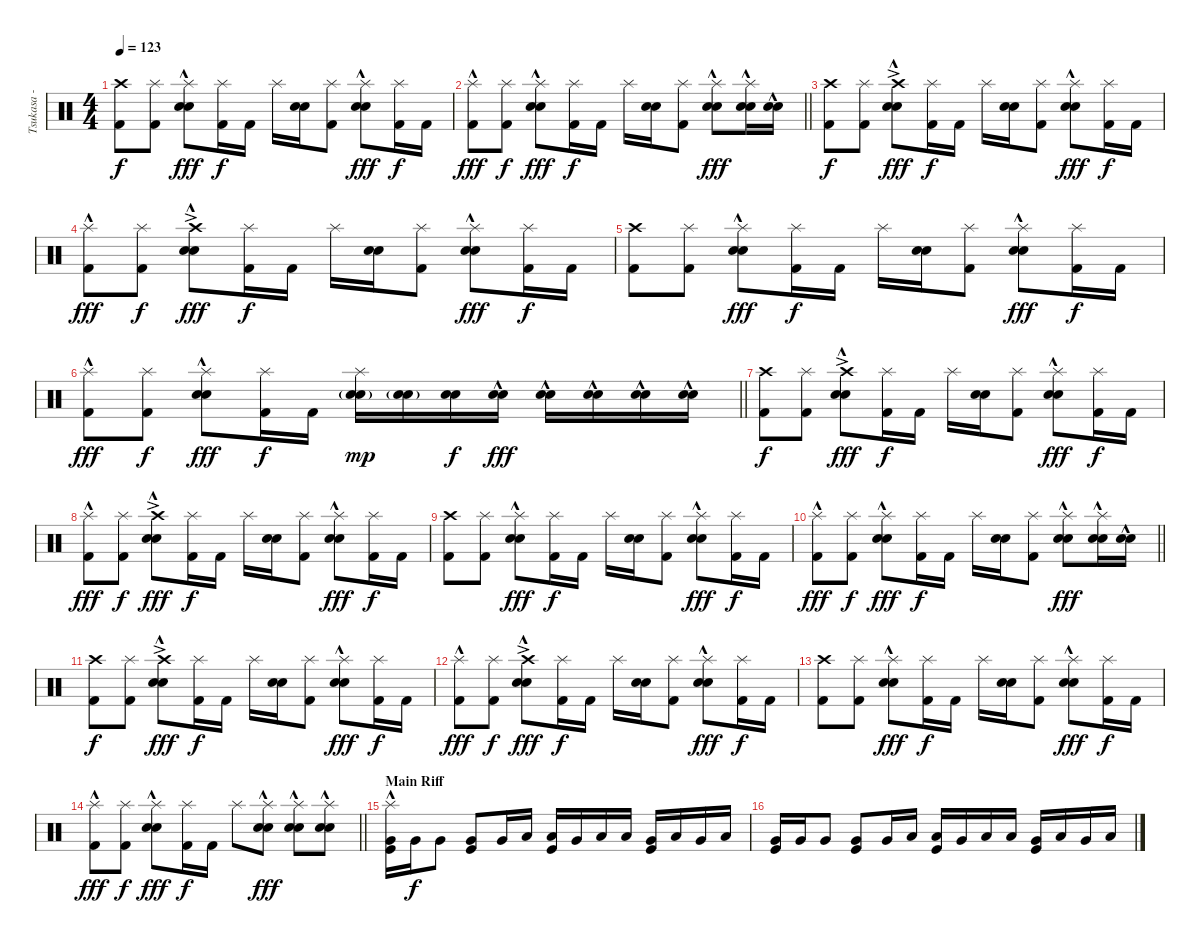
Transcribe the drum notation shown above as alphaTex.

\track ("Tsukasa - Drums" "Tsukasa - ") {instrument percussion}
\staff {score}
\articulation defaults
\ts (4 4)
\tempo 123
\clef neutral
\ks c
("Crash high (hit)" "Kick (hit) 2").8{dy f} ("Splash (hit)" "Kick (hit) 2").8 ("Splash (hit)" "Electric Snare (hit)"{hac} "Snare (hit) 2").8{dy fff} ("Splash (hit)" "Kick (hit) 2").16{dy f} "Kick (hit) 2".16 "Splash (hit)".16 ("Electric Snare (hit)" "Snare (hit) 2").16 ("Splash (hit)" "Kick (hit) 2").8 ("Splash (hit)" "Electric Snare (hit)"{hac} "Snare (hit) 2").8{dy fff} ("Splash (hit)" "Kick (hit) 2").16{dy f} "Kick (hit) 2".16 |
\barLineRight lightlight
("Splash (hit)"{hac} "Kick (hit) 2").8{dy fff} ("Splash (hit)" "Kick (hit) 2").8{dy f} ("Splash (hit)" "Electric Snare (hit)"{hac} "Snare (hit) 2").8{dy fff} ("Splash (hit)" "Kick (hit) 2").16{dy f} "Kick (hit) 2".16 "Splash (hit)".16 ("Electric Snare (hit)" "Snare (hit) 2").16 ("Splash (hit)" "Kick (hit) 2").8 ("Splash (hit)" "Electric Snare (hit)"{hac} "Snare (hit) 2").8{dy fff} ("Splash (hit)" "Electric Snare (hit)"{hac} "Snare (hit) 2").16 ("Electric Snare (hit)"{hac} "Snare (hit) 2").16 |
("Crash high (hit)" "Kick (hit) 2").8{dy f} ("Splash (hit)" "Kick (hit) 2").8 ("Crash high (hit)"{ac} "Electric Snare (hit)"{hac} "Snare (hit) 2").8{dy fff} ("Splash (hit)" "Kick (hit) 2").16{dy f} "Kick (hit) 2".16 "Splash (hit)".16 ("Electric Snare (hit)" "Snare (hit) 2").16 ("Splash (hit)" "Kick (hit) 2").8 ("Splash (hit)" "Electric Snare (hit)"{hac} "Snare (hit) 2").8{dy fff} ("Splash (hit)" "Kick (hit) 2").16{dy f} "Kick (hit) 2".16 |
("Splash (hit)"{hac} "Kick (hit) 2").8{dy fff} ("Splash (hit)" "Kick (hit) 2").8{dy f} ("Crash high (hit)"{ac} "Electric Snare (hit)"{hac} "Snare (hit) 2").8{dy fff} ("Splash (hit)" "Kick (hit) 2").16{dy f} "Kick (hit) 2".16 "Splash (hit)".16 ("Electric Snare (hit)" "Snare (hit) 2").16 ("Splash (hit)" "Kick (hit) 2").8 ("Splash (hit)" "Electric Snare (hit)"{hac} "Snare (hit) 2").8{dy fff} ("Splash (hit)" "Kick (hit) 2").16{dy f} "Kick (hit) 2".16 |
("Crash high (hit)" "Kick (hit) 2").8 ("Splash (hit)" "Kick (hit) 2").8 ("Splash (hit)" "Electric Snare (hit)"{hac} "Snare (hit) 2").8{dy fff} ("Splash (hit)" "Kick (hit) 2").16{dy f} "Kick (hit) 2".16 "Splash (hit)".16 ("Electric Snare (hit)" "Snare (hit) 2").16 ("Splash (hit)" "Kick (hit) 2").8 ("Splash (hit)" "Electric Snare (hit)"{hac} "Snare (hit) 2").8{dy fff} ("Splash (hit)" "Kick (hit) 2").16{dy f} "Kick (hit) 2".16 |
\barLineRight lightlight
("Splash (hit)"{hac} "Kick (hit) 2").8{dy fff} ("Splash (hit)" "Kick (hit) 2").8{dy f} ("Splash (hit)" "Electric Snare (hit)"{hac} "Snare (hit) 2").8{dy fff} ("Splash (hit)" "Kick (hit) 2").16{dy f} "Kick (hit) 2".16 ("Splash (hit)" "Electric Snare (hit)"{g} "Snare (hit) 2"{g}).16{dy mp} ("Electric Snare (hit)" "Snare (hit) 2"{g}).16 ("Electric Snare (hit)" "Snare (hit) 2").16{dy f} ("Electric Snare (hit)"{hac} "Snare (hit) 2").16{dy fff} ("Electric Snare (hit)"{hac} "Snare (hit) 2").16 ("Electric Snare (hit)"{hac} "Snare (hit) 2").16 ("Electric Snare (hit)"{hac} "Snare (hit) 2").16 ("Electric Snare (hit)"{hac} "Snare (hit) 2").16 |
("Crash high (hit)" "Kick (hit) 2").8{dy f} ("Splash (hit)" "Kick (hit) 2").8 ("Crash high (hit)"{ac} "Electric Snare (hit)"{hac} "Snare (hit) 2").8{dy fff} ("Splash (hit)" "Kick (hit) 2").16{dy f} "Kick (hit) 2".16 "Splash (hit)".16 ("Electric Snare (hit)" "Snare (hit) 2").16 ("Splash (hit)" "Kick (hit) 2").8 ("Splash (hit)" "Electric Snare (hit)"{hac} "Snare (hit) 2").8{dy fff} ("Splash (hit)" "Kick (hit) 2").16{dy f} "Kick (hit) 2".16 |
("Splash (hit)"{hac} "Kick (hit) 2").8{dy fff} ("Splash (hit)" "Kick (hit) 2").8{dy f} ("Crash high (hit)"{ac} "Electric Snare (hit)"{hac} "Snare (hit) 2").8{dy fff} ("Splash (hit)" "Kick (hit) 2").16{dy f} "Kick (hit) 2".16 "Splash (hit)".16 ("Electric Snare (hit)" "Snare (hit) 2").16 ("Splash (hit)" "Kick (hit) 2").8 ("Splash (hit)" "Electric Snare (hit)"{hac} "Snare (hit) 2").8{dy fff} ("Splash (hit)" "Kick (hit) 2").16{dy f} "Kick (hit) 2".16 |
("Crash high (hit)" "Kick (hit) 2").8 ("Splash (hit)" "Kick (hit) 2").8 ("Splash (hit)" "Electric Snare (hit)"{hac} "Snare (hit) 2").8{dy fff} ("Splash (hit)" "Kick (hit) 2").16{dy f} "Kick (hit) 2".16 "Splash (hit)".16 ("Electric Snare (hit)" "Snare (hit) 2").16 ("Splash (hit)" "Kick (hit) 2").8 ("Splash (hit)" "Electric Snare (hit)"{hac} "Snare (hit) 2").8{dy fff} ("Splash (hit)" "Kick (hit) 2").16{dy f} "Kick (hit) 2".16 |
\barLineRight lightlight
("Splash (hit)"{hac} "Kick (hit) 2").8{dy fff} ("Splash (hit)" "Kick (hit) 2").8{dy f} ("Splash (hit)" "Electric Snare (hit)"{hac} "Snare (hit) 2").8{dy fff} ("Splash (hit)" "Kick (hit) 2").16{dy f} "Kick (hit) 2".16 "Splash (hit)".16 ("Electric Snare (hit)" "Snare (hit) 2").16 ("Splash (hit)" "Kick (hit) 2").8 ("Splash (hit)" "Electric Snare (hit)"{hac} "Snare (hit) 2").8{dy fff} ("Splash (hit)" "Electric Snare (hit)"{hac} "Snare (hit) 2").16 ("Electric Snare (hit)"{hac} "Snare (hit) 2").16 |
("Crash high (hit)" "Kick (hit) 2").8{dy f} ("Splash (hit)" "Kick (hit) 2").8 ("Crash high (hit)"{ac} "Electric Snare (hit)"{hac} "Snare (hit) 2").8{dy fff} ("Splash (hit)" "Kick (hit) 2").16{dy f} "Kick (hit) 2".16 "Splash (hit)".16 ("Electric Snare (hit)" "Snare (hit) 2").16 ("Splash (hit)" "Kick (hit) 2").8 ("Splash (hit)" "Electric Snare (hit)"{hac} "Snare (hit) 2").8{dy fff} ("Splash (hit)" "Kick (hit) 2").16{dy f} "Kick (hit) 2".16 |
("Splash (hit)"{hac} "Kick (hit) 2").8{dy fff} ("Splash (hit)" "Kick (hit) 2").8{dy f} ("Crash high (hit)"{ac} "Electric Snare (hit)"{hac} "Snare (hit) 2").8{dy fff} ("Splash (hit)" "Kick (hit) 2").16{dy f} "Kick (hit) 2".16 "Splash (hit)".16 ("Electric Snare (hit)" "Snare (hit) 2").16 ("Splash (hit)" "Kick (hit) 2").8 ("Splash (hit)" "Electric Snare (hit)"{hac} "Snare (hit) 2").8{dy fff} ("Splash (hit)" "Kick (hit) 2").16{dy f} "Kick (hit) 2".16 |
("Crash high (hit)" "Kick (hit) 2").8 ("Splash (hit)" "Kick (hit) 2").8 ("Splash (hit)" "Electric Snare (hit)"{hac} "Snare (hit) 2").8{dy fff} ("Splash (hit)" "Kick (hit) 2").16{dy f} "Kick (hit) 2".16 "Splash (hit)".16 ("Electric Snare (hit)" "Snare (hit) 2").16 ("Splash (hit)" "Kick (hit) 2").8 ("Splash (hit)" "Electric Snare (hit)"{hac} "Snare (hit) 2").8{dy fff} ("Splash (hit)" "Kick (hit) 2").16{dy f} "Kick (hit) 2".16 |
\barLineRight lightlight
("Splash (hit)"{hac} "Kick (hit) 2").8{dy fff} ("Splash (hit)" "Kick (hit) 2").8{dy f} ("Splash (hit)" "Electric Snare (hit)"{hac} "Snare (hit) 2").8{dy fff} ("Splash (hit)" "Kick (hit) 2").16{dy f} "Kick (hit) 2".16 "Splash (hit)".8 ("Splash (hit)" "Electric Snare (hit)"{hac} "Snare (hit) 2").8{dy fff} ("Splash (hit)" "Electric Snare (hit)"{hac} "Snare (hit) 2").8 ("Splash (hit)" "Electric Snare (hit)"{hac} "Snare (hit) 2").8 |
\section ("" "Main Riff")
("Splash (hit)"{hac} "Very Low Tom (hit)" "Kick (hit)").16 "Very Low Tom (hit)".16{dy f} "Very Low Tom (hit)".8 ("Very Low Tom (hit)" "Kick (hit)").8 "Very Low Tom (hit)".16 "Low Tom (hit)".16 ("Low Tom (hit)" "Kick (hit)").16 "Very Low Tom (hit)".16 "Low Floor Tom (hit)".16 "Low Floor Tom (hit)".16 ("Very Low Tom (hit)" "Kick (hit)").16 "Low Floor Tom (hit)".16 "Very Low Tom (hit)".16 "Low Floor Tom (hit)".16 |
("Very Low Tom (hit)" "Kick (hit)").16 "Very Low Tom (hit)".16 "Very Low Tom (hit)".8 ("Very Low Tom (hit)" "Kick (hit)").8 "Very Low Tom (hit)".16 "Low Tom (hit)".16 ("Low Tom (hit)" "Kick (hit)").16 "Very Low Tom (hit)".16 "Low Floor Tom (hit)".16 "Low Floor Tom (hit)".16 ("Very Low Tom (hit)" "Kick (hit)").16 "Low Floor Tom (hit)".16 "Very Low Tom (hit)".16 "Low Floor Tom (hit)".16
